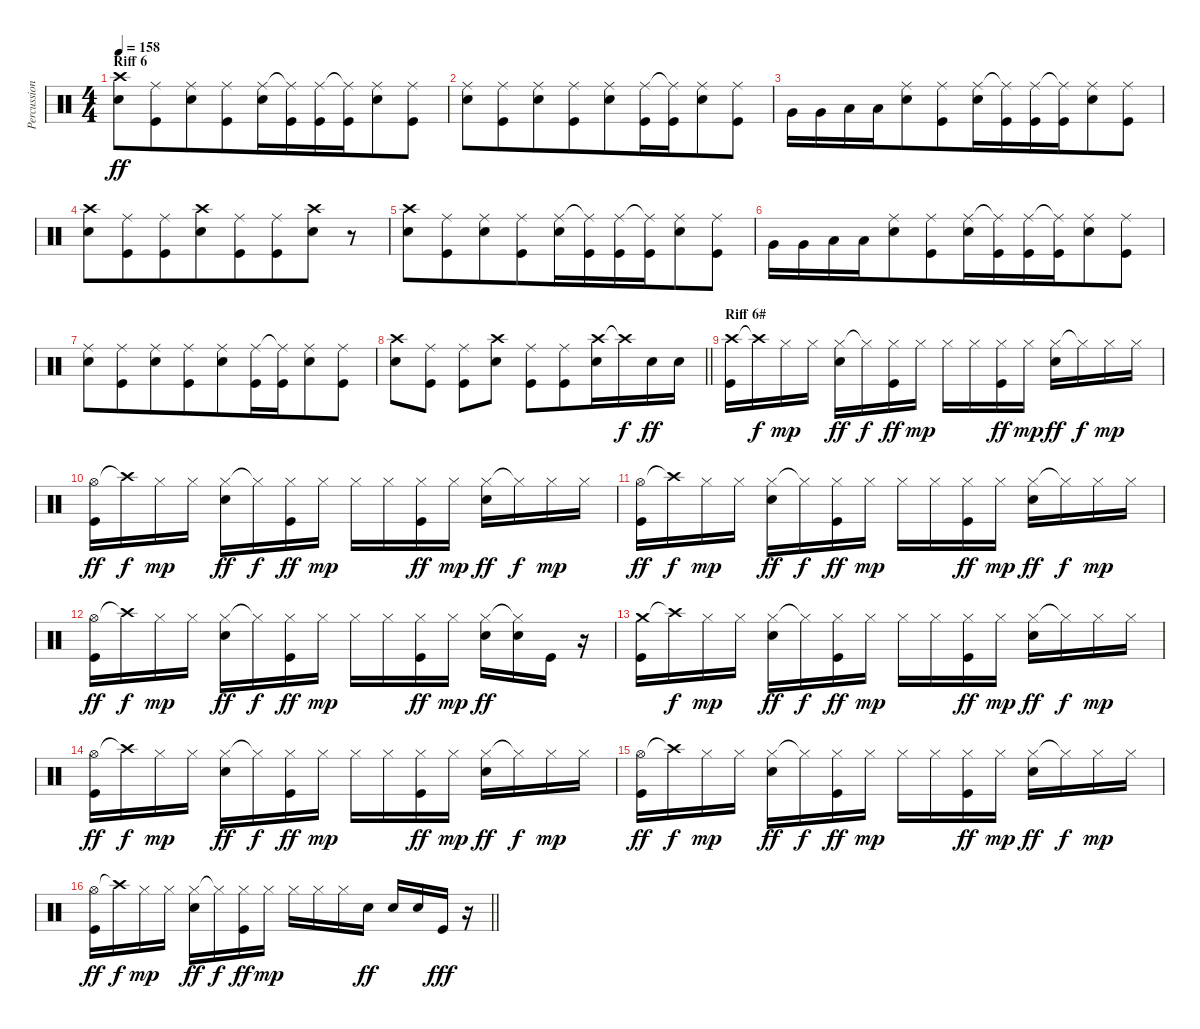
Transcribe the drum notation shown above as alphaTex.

\track ("Percussions" "Percussion") {instrument percussion}
\staff {score}
\articulation defaults
\ts (4 4)
\section ("" "Riff 6")
\tempo 158
\clef neutral
\ks c
("Crash high (hit)" "Electric Snare (hit)").8{dy ff beam merge} ("Ride (middle)" "Kick (hit)").8{beam merge} ("Ride (middle)" "Electric Snare (hit)").8{beam merge} ("Ride (middle)" "Kick (hit)").8{beam merge} ("Ride (middle)" "Electric Snare (hit)").16{beam merge} ("Ride (middle)"{t} "Kick (hit)").16{beam merge} ("Ride (middle)" "Kick (hit)").16{beam merge} ("Ride (middle)"{t} "Kick (hit)").16{beam merge} ("Ride (middle)" "Electric Snare (hit)").8{beam merge} ("Ride (middle)" "Kick (hit)").8 |
("Ride (middle)" "Electric Snare (hit)").8{beam merge} ("Ride (middle)" "Kick (hit)").8{beam merge} ("Ride (middle)" "Electric Snare (hit)").8{beam merge} ("Ride (middle)" "Kick (hit)").8{beam merge} ("Ride (middle)" "Electric Snare (hit)").8{beam merge} ("Ride (middle)" "Kick (hit)").16{beam merge} ("Ride (middle)"{t} "Kick (hit)").16{beam merge} ("Ride (middle)" "Electric Snare (hit)").8{beam merge} ("Ride (middle)" "Kick (hit)").8 |
"Very Low Tom (hit)".16 "Very Low Tom (hit)".16{beam merge} "Low Floor Tom (hit)".16{beam merge} "Low Floor Tom (hit)".16{beam merge} ("Ride (middle)" "Electric Snare (hit)").8{beam merge} ("Ride (middle)" "Kick (hit)").8{beam merge} ("Ride (middle)" "Electric Snare (hit)").16{beam merge} ("Ride (middle)"{t} "Kick (hit)").16{beam merge} ("Ride (middle)" "Kick (hit)").16{beam merge} ("Ride (middle)"{t} "Kick (hit)").16{beam merge} ("Ride (middle)" "Electric Snare (hit)").8{beam merge} ("Ride (middle)" "Kick (hit)").8 |
("Crash high (hit)" "Electric Snare (hit)").8{beam merge} ("Ride (middle)" "Kick (hit)").8{beam merge} ("Ride (middle)" "Kick (hit)").8{beam merge} ("Crash high (hit)" "Electric Snare (hit)").8{beam merge} ("Ride (middle)" "Kick (hit)").8{beam merge} ("Ride (middle)" "Kick (hit)").8{beam merge} ("Crash high (hit)" "Electric Snare (hit)").8{beam merge} r.8 |
("Crash high (hit)" "Electric Snare (hit)").8{beam merge} ("Ride (middle)" "Kick (hit)").8{beam merge} ("Ride (middle)" "Electric Snare (hit)").8{beam merge} ("Ride (middle)" "Kick (hit)").8{beam merge} ("Ride (middle)" "Electric Snare (hit)").16{beam merge} ("Ride (middle)"{t} "Kick (hit)").16{beam merge} ("Ride (middle)" "Kick (hit)").16{beam merge} ("Ride (middle)"{t} "Kick (hit)").16{beam merge} ("Ride (middle)" "Electric Snare (hit)").8{beam merge} ("Ride (middle)" "Kick (hit)").8 |
"Very Low Tom (hit)".16 "Very Low Tom (hit)".16{beam merge} "Low Floor Tom (hit)".16{beam merge} "Low Floor Tom (hit)".16{beam merge} ("Ride (middle)" "Electric Snare (hit)").8{beam merge} ("Ride (middle)" "Kick (hit)").8{beam merge} ("Ride (middle)" "Electric Snare (hit)").16{beam merge} ("Ride (middle)"{t} "Kick (hit)").16{beam merge} ("Ride (middle)" "Kick (hit)").16{beam merge} ("Ride (middle)"{t} "Kick (hit)").16{beam merge} ("Ride (middle)" "Electric Snare (hit)").8{beam merge} ("Ride (middle)" "Kick (hit)").8 |
("Ride (middle)" "Electric Snare (hit)").8{beam merge} ("Ride (middle)" "Kick (hit)").8{beam merge} ("Ride (middle)" "Electric Snare (hit)").8{beam merge} ("Ride (middle)" "Kick (hit)").8{beam merge} ("Ride (middle)" "Electric Snare (hit)").8{beam merge} ("Ride (middle)" "Kick (hit)").16{beam merge} ("Ride (middle)"{t} "Kick (hit)").16{beam merge} ("Ride (middle)" "Electric Snare (hit)").8{beam merge} ("Ride (middle)" "Kick (hit)").8 |
\barLineRight lightlight
("Crash high (hit)" "Electric Snare (hit)").8{beam merge} ("Ride (middle)" "Kick (hit)").8{beam split} ("Ride (middle)" "Kick (hit)").8{beam merge} ("Crash high (hit)" "Electric Snare (hit)").8{beam split} ("Ride (middle)" "Kick (hit)").8{beam merge} ("Ride (middle)" "Kick (hit)").8{beam merge} ("Crash high (hit)" "Electric Snare (hit)").16{beam merge} "Crash high (hit)"{t}.16{dy f beam merge} "Electric Snare (hit)".16{dy ff beam merge} "Electric Snare (hit)".16 |
\section ("" "Riff 6#")
("Crash high (hit)" "Kick (hit)").16 "Crash high (hit)"{t}.16{dy f} "Hi-Hat (closed)".16{dy mp} "Hi-Hat (closed)".16 ("Hi-Hat (closed)" "Electric Snare (hit)").16{dy ff} "Hi-Hat (closed)"{t}.16{dy f} ("Hi-Hat (closed)" "Kick (hit)").16{dy ff} "Hi-Hat (closed)".16{dy mp} "Hi-Hat (closed)".16 "Hi-Hat (closed)".16 ("Hi-Hat (closed)" "Kick (hit)").16{dy ff} "Hi-Hat (closed)".16{dy mp} ("Hi-Hat (closed)" "Electric Snare (hit)").16{dy ff} "Hi-Hat (closed)"{t}.16{dy f} "Hi-Hat (closed)".16{dy mp} "Hi-Hat (closed)".16 |
("Hi-Hat (open)" "Kick (hit)").16{dy ff} "Crash high (hit)"{t}.16{dy f} "Hi-Hat (closed)".16{dy mp} "Hi-Hat (closed)".16 ("Hi-Hat (closed)" "Electric Snare (hit)").16{dy ff} "Hi-Hat (closed)"{t}.16{dy f} ("Hi-Hat (closed)" "Kick (hit)").16{dy ff} "Hi-Hat (closed)".16{dy mp} "Hi-Hat (closed)".16 "Hi-Hat (closed)".16 ("Hi-Hat (closed)" "Kick (hit)").16{dy ff} "Hi-Hat (closed)".16{dy mp} ("Hi-Hat (closed)" "Electric Snare (hit)").16{dy ff} "Hi-Hat (closed)"{t}.16{dy f} "Hi-Hat (closed)".16{dy mp} "Hi-Hat (closed)".16 |
("Hi-Hat (open)" "Kick (hit)").16{dy ff} "Crash high (hit)"{t}.16{dy f} "Hi-Hat (closed)".16{dy mp} "Hi-Hat (closed)".16 ("Hi-Hat (closed)" "Electric Snare (hit)").16{dy ff} "Hi-Hat (closed)"{t}.16{dy f} ("Hi-Hat (closed)" "Kick (hit)").16{dy ff} "Hi-Hat (closed)".16{dy mp} "Hi-Hat (closed)".16 "Hi-Hat (closed)".16 ("Hi-Hat (closed)" "Kick (hit)").16{dy ff} "Hi-Hat (closed)".16{dy mp} ("Hi-Hat (closed)" "Electric Snare (hit)").16{dy ff} "Hi-Hat (closed)"{t}.16{dy f} "Hi-Hat (closed)".16{dy mp} "Hi-Hat (closed)".16 |
("Hi-Hat (open)" "Kick (hit)").16{dy ff} "Crash high (hit)"{t}.16{dy f} "Hi-Hat (closed)".16{dy mp} "Hi-Hat (closed)".16 ("Hi-Hat (closed)" "Electric Snare (hit)").16{dy ff} "Hi-Hat (closed)"{t}.16{dy f} ("Hi-Hat (closed)" "Kick (hit)").16{dy ff} "Hi-Hat (closed)".16{dy mp} "Hi-Hat (closed)".16 "Hi-Hat (closed)".16 ("Hi-Hat (closed)" "Kick (hit)").16{dy ff} "Hi-Hat (closed)".16{dy mp} ("Hi-Hat (closed)" "Electric Snare (hit)").16{dy ff} ("Hi-Hat (closed)"{t} "Electric Snare (hit)").16 "Kick (hit)".16 r.16 |
("Crash medium (hit)" "Kick (hit)").16 "Crash high (hit)"{t}.16{dy f} "Hi-Hat (closed)".16{dy mp} "Hi-Hat (closed)".16 ("Hi-Hat (closed)" "Electric Snare (hit)").16{dy ff} "Hi-Hat (closed)"{t}.16{dy f} ("Hi-Hat (closed)" "Kick (hit)").16{dy ff} "Hi-Hat (closed)".16{dy mp} "Hi-Hat (closed)".16 "Hi-Hat (closed)".16 ("Hi-Hat (closed)" "Kick (hit)").16{dy ff} "Hi-Hat (closed)".16{dy mp} ("Hi-Hat (closed)" "Electric Snare (hit)").16{dy ff} "Hi-Hat (closed)"{t}.16{dy f} "Hi-Hat (closed)".16{dy mp} "Hi-Hat (closed)".16 |
("Hi-Hat (open)" "Kick (hit)").16{dy ff} "Crash high (hit)"{t}.16{dy f} "Hi-Hat (closed)".16{dy mp} "Hi-Hat (closed)".16 ("Hi-Hat (closed)" "Electric Snare (hit)").16{dy ff} "Hi-Hat (closed)"{t}.16{dy f} ("Hi-Hat (closed)" "Kick (hit)").16{dy ff} "Hi-Hat (closed)".16{dy mp} "Hi-Hat (closed)".16 "Hi-Hat (closed)".16 ("Hi-Hat (closed)" "Kick (hit)").16{dy ff} "Hi-Hat (closed)".16{dy mp} ("Hi-Hat (closed)" "Electric Snare (hit)").16{dy ff} "Hi-Hat (closed)"{t}.16{dy f} "Hi-Hat (closed)".16{dy mp} "Hi-Hat (closed)".16 |
("Hi-Hat (open)" "Kick (hit)").16{dy ff} "Crash high (hit)"{t}.16{dy f} "Hi-Hat (closed)".16{dy mp} "Hi-Hat (closed)".16 ("Hi-Hat (closed)" "Electric Snare (hit)").16{dy ff} "Hi-Hat (closed)"{t}.16{dy f} ("Hi-Hat (closed)" "Kick (hit)").16{dy ff} "Hi-Hat (closed)".16{dy mp} "Hi-Hat (closed)".16 "Hi-Hat (closed)".16 ("Hi-Hat (closed)" "Kick (hit)").16{dy ff} "Hi-Hat (closed)".16{dy mp} ("Hi-Hat (closed)" "Electric Snare (hit)").16{dy ff} "Hi-Hat (closed)"{t}.16{dy f} "Hi-Hat (closed)".16{dy mp} "Hi-Hat (closed)".16 |
\barLineRight lightlight
("Hi-Hat (open)" "Kick (hit)").16{dy ff} "Crash high (hit)"{t}.16{dy f} "Hi-Hat (closed)".16{dy mp} "Hi-Hat (closed)".16 ("Hi-Hat (closed)" "Electric Snare (hit)").16{dy ff} "Hi-Hat (closed)"{t}.16{dy f} ("Hi-Hat (closed)" "Kick (hit)").16{dy ff} "Hi-Hat (closed)".16{dy mp} "Hi-Hat (closed)".16 "Hi-Hat (closed)".16 "Hi-Hat (closed)".16 "Electric Snare (hit)".16{dy ff} "Electric Snare (hit)".16 "Electric Snare (hit)".16 "Kick (hit)".16{dy fff} r.16
